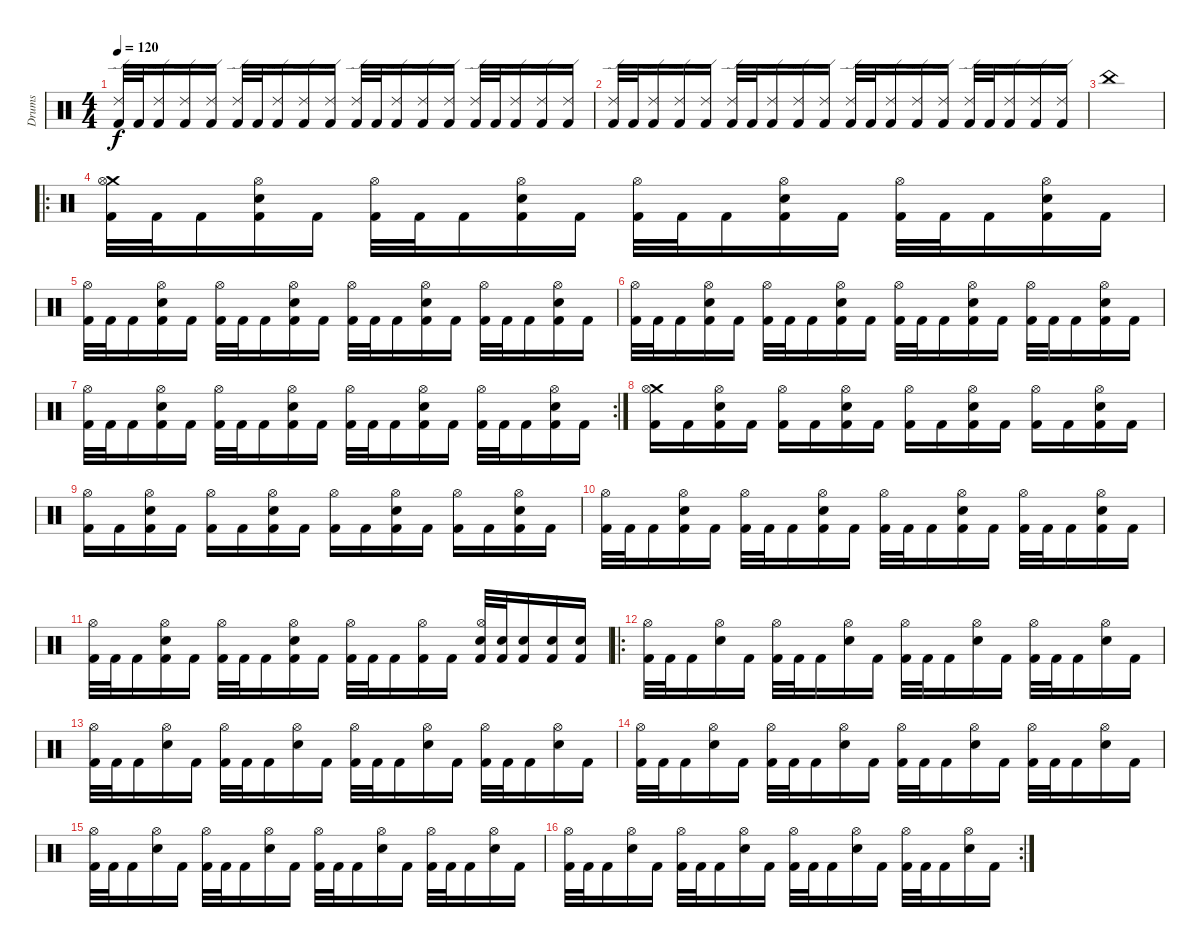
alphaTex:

\track ("Drums" "Drums") {instrument percussion}
\staff {score}
\articulation defaults
\ts (4 4)
\tempo 120
\clef neutral
\ks c
("Ride (edge) 2" "Kick (hit) 2").32{dy f} "Kick (hit) 2".32 ("Ride (edge) 2" "Kick (hit) 2").16 ("Ride (edge) 2" "Kick (hit) 2").16 ("Ride (edge) 2" "Kick (hit) 2").16 ("Ride (edge) 2" "Kick (hit) 2").32 "Kick (hit) 2".32 ("Ride (edge) 2" "Kick (hit) 2").16 ("Ride (edge) 2" "Kick (hit) 2").16 ("Ride (edge) 2" "Kick (hit) 2").16 ("Ride (edge) 2" "Kick (hit) 2").32 "Kick (hit) 2".32 ("Ride (edge) 2" "Kick (hit) 2").16 ("Ride (edge) 2" "Kick (hit) 2").16 ("Ride (edge) 2" "Kick (hit) 2").16 ("Ride (edge) 2" "Kick (hit) 2").32 "Kick (hit) 2".32 ("Ride (edge) 2" "Kick (hit) 2").16 ("Ride (edge) 2" "Kick (hit) 2").16 ("Ride (edge) 2" "Kick (hit) 2").16 |
("Ride (edge) 2" "Kick (hit) 2").32 "Kick (hit) 2".32 ("Ride (edge) 2" "Kick (hit) 2").16 ("Ride (edge) 2" "Kick (hit) 2").16 ("Ride (edge) 2" "Kick (hit) 2").16 ("Ride (edge) 2" "Kick (hit) 2").32 "Kick (hit) 2".32 ("Ride (edge) 2" "Kick (hit) 2").16 ("Ride (edge) 2" "Kick (hit) 2").16 ("Ride (edge) 2" "Kick (hit) 2").16 ("Ride (edge) 2" "Kick (hit) 2").32 "Kick (hit) 2".32 ("Ride (edge) 2" "Kick (hit) 2").16 ("Ride (edge) 2" "Kick (hit) 2").16 ("Ride (edge) 2" "Kick (hit) 2").16 ("Ride (edge) 2" "Kick (hit) 2").32 "Kick (hit) 2".32 ("Ride (edge) 2" "Kick (hit) 2").16 ("Ride (edge) 2" "Kick (hit) 2").16 ("Ride (edge) 2" "Kick (hit) 2").16 |
"China (hit)".1 |
\ro
("Crash medium (hit)" "Hi-Hat (open)" "Kick (hit) 2").32 "Kick (hit) 2".32 "Kick (hit) 2".16 ("Hi-Hat (open)" "Electric Snare (hit)" "Kick (hit) 2").16 "Kick (hit) 2".16 ("Hi-Hat (open)" "Kick (hit) 2").32 "Kick (hit) 2".32 "Kick (hit) 2".16 ("Hi-Hat (open)" "Electric Snare (hit)" "Kick (hit) 2").16 "Kick (hit) 2".16 ("Hi-Hat (open)" "Kick (hit) 2").32 "Kick (hit) 2".32 "Kick (hit) 2".16 ("Hi-Hat (open)" "Electric Snare (hit)" "Kick (hit) 2").16 "Kick (hit) 2".16 ("Hi-Hat (open)" "Kick (hit) 2").32 "Kick (hit) 2".32 "Kick (hit) 2".16 ("Hi-Hat (open)" "Electric Snare (hit)" "Kick (hit) 2").16 "Kick (hit) 2".16 |
("Hi-Hat (open)" "Kick (hit) 2").32 "Kick (hit) 2".32 "Kick (hit) 2".16 ("Hi-Hat (open)" "Electric Snare (hit)" "Kick (hit) 2").16 "Kick (hit) 2".16 ("Hi-Hat (open)" "Kick (hit) 2").32 "Kick (hit) 2".32 "Kick (hit) 2".16 ("Hi-Hat (open)" "Electric Snare (hit)" "Kick (hit) 2").16 "Kick (hit) 2".16 ("Hi-Hat (open)" "Kick (hit) 2").32 "Kick (hit) 2".32 "Kick (hit) 2".16 ("Hi-Hat (open)" "Electric Snare (hit)" "Kick (hit) 2").16 "Kick (hit) 2".16 ("Hi-Hat (open)" "Kick (hit) 2").32 "Kick (hit) 2".32 "Kick (hit) 2".16 ("Hi-Hat (open)" "Electric Snare (hit)" "Kick (hit) 2").16 "Kick (hit) 2".16 |
("Hi-Hat (open)" "Kick (hit) 2").32 "Kick (hit) 2".32 "Kick (hit) 2".16 ("Hi-Hat (open)" "Electric Snare (hit)" "Kick (hit) 2").16 "Kick (hit) 2".16 ("Hi-Hat (open)" "Kick (hit) 2").32 "Kick (hit) 2".32 "Kick (hit) 2".16 ("Hi-Hat (open)" "Electric Snare (hit)" "Kick (hit) 2").16 "Kick (hit) 2".16 ("Hi-Hat (open)" "Kick (hit) 2").32 "Kick (hit) 2".32 "Kick (hit) 2".16 ("Hi-Hat (open)" "Electric Snare (hit)" "Kick (hit) 2").16 "Kick (hit) 2".16 ("Hi-Hat (open)" "Kick (hit) 2").32 "Kick (hit) 2".32 "Kick (hit) 2".16 ("Hi-Hat (open)" "Electric Snare (hit)" "Kick (hit) 2").16 "Kick (hit) 2".16 |
\rc 2
("Hi-Hat (open)" "Kick (hit) 2").32 "Kick (hit) 2".32 "Kick (hit) 2".16 ("Hi-Hat (open)" "Electric Snare (hit)" "Kick (hit) 2").16 "Kick (hit) 2".16 ("Hi-Hat (open)" "Kick (hit) 2").32 "Kick (hit) 2".32 "Kick (hit) 2".16 ("Hi-Hat (open)" "Electric Snare (hit)" "Kick (hit) 2").16 "Kick (hit) 2".16 ("Hi-Hat (open)" "Kick (hit) 2").32 "Kick (hit) 2".32 "Kick (hit) 2".16 ("Hi-Hat (open)" "Electric Snare (hit)" "Kick (hit) 2").16 "Kick (hit) 2".16 ("Hi-Hat (open)" "Kick (hit) 2").32 "Kick (hit) 2".32 "Kick (hit) 2".16 ("Hi-Hat (open)" "Electric Snare (hit)" "Kick (hit) 2").16 "Kick (hit) 2".16 |
("Crash medium (hit)" "Hi-Hat (open)" "Kick (hit) 2").16 "Kick (hit) 2".16 ("Hi-Hat (open)" "Electric Snare (hit)" "Kick (hit) 2").16 "Kick (hit) 2".16 ("Hi-Hat (open)" "Kick (hit) 2").16 "Kick (hit) 2".16 ("Hi-Hat (open)" "Electric Snare (hit)" "Kick (hit) 2").16 "Kick (hit) 2".16 ("Hi-Hat (open)" "Kick (hit) 2").16 "Kick (hit) 2".16 ("Hi-Hat (open)" "Electric Snare (hit)" "Kick (hit) 2").16 "Kick (hit) 2".16 ("Hi-Hat (open)" "Kick (hit) 2").16 "Kick (hit) 2".16 ("Hi-Hat (open)" "Electric Snare (hit)" "Kick (hit) 2").16 "Kick (hit) 2".16 |
("Hi-Hat (open)" "Kick (hit) 2").16 "Kick (hit) 2".16 ("Hi-Hat (open)" "Electric Snare (hit)" "Kick (hit) 2").16 "Kick (hit) 2".16 ("Hi-Hat (open)" "Kick (hit) 2").16 "Kick (hit) 2".16 ("Hi-Hat (open)" "Electric Snare (hit)" "Kick (hit) 2").16 "Kick (hit) 2".16 ("Hi-Hat (open)" "Kick (hit) 2").16 "Kick (hit) 2".16 ("Hi-Hat (open)" "Electric Snare (hit)" "Kick (hit) 2").16 "Kick (hit) 2".16 ("Hi-Hat (open)" "Kick (hit) 2").16 "Kick (hit) 2".16 ("Hi-Hat (open)" "Electric Snare (hit)" "Kick (hit) 2").16 "Kick (hit) 2".16 |
("Hi-Hat (open)" "Kick (hit) 2").32 "Kick (hit) 2".32 "Kick (hit) 2".16 ("Hi-Hat (open)" "Electric Snare (hit)" "Kick (hit) 2").16 "Kick (hit) 2".16 ("Hi-Hat (open)" "Kick (hit) 2").32 "Kick (hit) 2".32 "Kick (hit) 2".16 ("Hi-Hat (open)" "Electric Snare (hit)" "Kick (hit) 2").16 "Kick (hit) 2".16 ("Hi-Hat (open)" "Kick (hit) 2").32 "Kick (hit) 2".32 "Kick (hit) 2".16 ("Hi-Hat (open)" "Electric Snare (hit)" "Kick (hit) 2").16 "Kick (hit) 2".16 ("Hi-Hat (open)" "Kick (hit) 2").32 "Kick (hit) 2".32 "Kick (hit) 2".16 ("Hi-Hat (open)" "Electric Snare (hit)" "Kick (hit) 2").16 "Kick (hit) 2".16 |
("Hi-Hat (open)" "Kick (hit) 2").32 "Kick (hit) 2".32 "Kick (hit) 2".16 ("Hi-Hat (open)" "Electric Snare (hit)" "Kick (hit) 2").16 "Kick (hit) 2".16 ("Hi-Hat (open)" "Kick (hit) 2").32 "Kick (hit) 2".32 "Kick (hit) 2".16 ("Hi-Hat (open)" "Electric Snare (hit)" "Kick (hit) 2").16 "Kick (hit) 2".16 ("Hi-Hat (open)" "Kick (hit) 2").32 "Kick (hit) 2".32 "Kick (hit) 2".16 ("Hi-Hat (open)" "Kick (hit) 2").16 "Kick (hit) 2".16 ("Hi-Hat (open)" "Electric Snare (hit)" "Kick (hit) 2").32 ("Electric Snare (hit)" "Kick (hit) 2").32 ("Electric Snare (hit)" "Kick (hit) 2").16 ("Electric Snare (hit)" "Kick (hit) 2").16 ("Electric Snare (hit)" "Kick (hit) 2").16 |
\ro
("Hi-Hat (open)" "Kick (hit) 2").32 "Kick (hit) 2".32 "Kick (hit) 2".16 ("Hi-Hat (open)" "Electric Snare (hit)").16 "Kick (hit) 2".16 ("Hi-Hat (open)" "Kick (hit) 2").32 "Kick (hit) 2".32 "Kick (hit) 2".16 ("Hi-Hat (open)" "Electric Snare (hit)").16 "Kick (hit) 2".16 ("Hi-Hat (open)" "Kick (hit) 2").32 "Kick (hit) 2".32 "Kick (hit) 2".16 ("Hi-Hat (open)" "Electric Snare (hit)").16 "Kick (hit) 2".16 ("Hi-Hat (open)" "Kick (hit) 2").32 "Kick (hit) 2".32 "Kick (hit) 2".16 ("Hi-Hat (open)" "Electric Snare (hit)").16 "Kick (hit) 2".16 |
("Hi-Hat (open)" "Kick (hit) 2").32 "Kick (hit) 2".32 "Kick (hit) 2".16 ("Hi-Hat (open)" "Electric Snare (hit)").16 "Kick (hit) 2".16 ("Hi-Hat (open)" "Kick (hit) 2").32 "Kick (hit) 2".32 "Kick (hit) 2".16 ("Hi-Hat (open)" "Electric Snare (hit)").16 "Kick (hit) 2".16 ("Hi-Hat (open)" "Kick (hit) 2").32 "Kick (hit) 2".32 "Kick (hit) 2".16 ("Hi-Hat (open)" "Electric Snare (hit)").16 "Kick (hit) 2".16 ("Hi-Hat (open)" "Kick (hit) 2").32 "Kick (hit) 2".32 "Kick (hit) 2".16 ("Hi-Hat (open)" "Electric Snare (hit)").16 "Kick (hit) 2".16 |
("Hi-Hat (open)" "Kick (hit) 2").32 "Kick (hit) 2".32 "Kick (hit) 2".16 ("Hi-Hat (open)" "Electric Snare (hit)").16 "Kick (hit) 2".16 ("Hi-Hat (open)" "Kick (hit) 2").32 "Kick (hit) 2".32 "Kick (hit) 2".16 ("Hi-Hat (open)" "Electric Snare (hit)").16 "Kick (hit) 2".16 ("Hi-Hat (open)" "Kick (hit) 2").32 "Kick (hit) 2".32 "Kick (hit) 2".16 ("Hi-Hat (open)" "Electric Snare (hit)").16 "Kick (hit) 2".16 ("Hi-Hat (open)" "Kick (hit) 2").32 "Kick (hit) 2".32 "Kick (hit) 2".16 ("Hi-Hat (open)" "Electric Snare (hit)").16 "Kick (hit) 2".16 |
("Hi-Hat (open)" "Kick (hit) 2").32 "Kick (hit) 2".32 "Kick (hit) 2".16 ("Hi-Hat (open)" "Electric Snare (hit)").16 "Kick (hit) 2".16 ("Hi-Hat (open)" "Kick (hit) 2").32 "Kick (hit) 2".32 "Kick (hit) 2".16 ("Hi-Hat (open)" "Electric Snare (hit)").16 "Kick (hit) 2".16 ("Hi-Hat (open)" "Kick (hit) 2").32 "Kick (hit) 2".32 "Kick (hit) 2".16 ("Hi-Hat (open)" "Electric Snare (hit)").16 "Kick (hit) 2".16 ("Hi-Hat (open)" "Kick (hit) 2").32 "Kick (hit) 2".32 "Kick (hit) 2".16 ("Hi-Hat (open)" "Electric Snare (hit)").16 "Kick (hit) 2".16 |
\rc 2
("Hi-Hat (open)" "Kick (hit) 2").32 "Kick (hit) 2".32 "Kick (hit) 2".16 ("Hi-Hat (open)" "Electric Snare (hit)").16 "Kick (hit) 2".16 ("Hi-Hat (open)" "Kick (hit) 2").32 "Kick (hit) 2".32 "Kick (hit) 2".16 ("Hi-Hat (open)" "Electric Snare (hit)").16 "Kick (hit) 2".16 ("Hi-Hat (open)" "Kick (hit) 2").32 "Kick (hit) 2".32 "Kick (hit) 2".16 ("Hi-Hat (open)" "Electric Snare (hit)").16 "Kick (hit) 2".16 ("Hi-Hat (open)" "Kick (hit) 2").32 "Kick (hit) 2".32 "Kick (hit) 2".16 ("Hi-Hat (open)" "Electric Snare (hit)").16 "Kick (hit) 2".16
